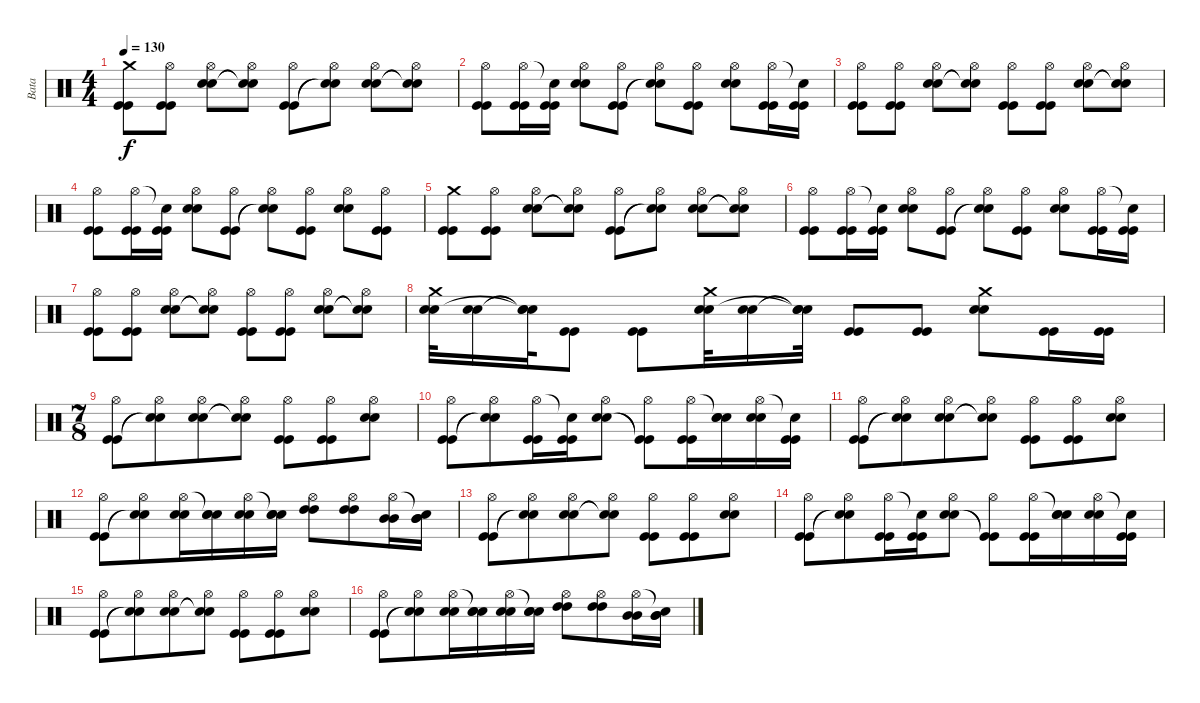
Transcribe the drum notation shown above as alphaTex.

\track ("Bata" "Bata") {instrument percussion}
\staff {score}
\articulation defaults
\ts (4 4)
\tempo 130
\clef neutral
\ks c
("Crash medium (hit)" "Kick (hit)" "Kick (hit)").8{dy f} ("Hi-Hat (open)" "Kick (hit)" "Kick (hit)").8 ("Hi-Hat (open)" "Snare (hit) 2" "Snare (hit) 2").8 ("Hi-Hat (open)" "Snare (hit)"{t} "Snare (hit)"{t}).8 ("Hi-Hat (open)" "Kick (hit)" "Kick (hit)").8 ("Hi-Hat (open)" "Snare (hit)"{t} "Snare (hit)"{t}).8 ("Hi-Hat (open)" "Snare (hit) 2" "Snare (hit) 2").8 ("Hi-Hat (open)" "Snare (hit)"{t} "Snare (hit)"{t}).8 |
("Hi-Hat (open)" "Kick (hit)" "Kick (hit)").8 ("Hi-Hat (open)" "Kick (hit)" "Kick (hit)").16 ("Snare (hit)"{t} "Kick (hit)" "Kick (hit)").16 ("Hi-Hat (open)" "Snare (hit) 2" "Snare (hit) 2").8 ("Hi-Hat (open)" "Kick (hit)" "Kick (hit)").8 ("Hi-Hat (open)" "Snare (hit)"{t} "Snare (hit)"{t}).8 ("Hi-Hat (open)" "Kick (hit)" "Kick (hit)").8 ("Hi-Hat (open)" "Snare (hit) 2" "Snare (hit) 2").8 ("Hi-Hat (open)" "Kick (hit)" "Kick (hit)").16 ("Snare (hit)"{t} "Kick (hit)" "Kick (hit)").16 |
("Hi-Hat (open)" "Kick (hit)" "Kick (hit)").8 ("Hi-Hat (open)" "Kick (hit)" "Kick (hit)").8 ("Hi-Hat (open)" "Snare (hit) 2" "Snare (hit) 2").8 ("Hi-Hat (open)" "Snare (hit)"{t} "Snare (hit)"{t}).8 ("Hi-Hat (open)" "Kick (hit)" "Kick (hit)").8 ("Hi-Hat (open)" "Kick (hit)" "Kick (hit)").8 ("Hi-Hat (open)" "Snare (hit) 2" "Snare (hit) 2").8 ("Hi-Hat (open)" "Snare (hit)"{t} "Snare (hit)"{t}).8 |
("Hi-Hat (open)" "Kick (hit)" "Kick (hit)").8 ("Hi-Hat (open)" "Kick (hit)" "Kick (hit)").16 ("Snare (hit)"{t} "Kick (hit)" "Kick (hit)").16 ("Hi-Hat (open)" "Snare (hit) 2" "Snare (hit) 2").8 ("Hi-Hat (open)" "Kick (hit)" "Kick (hit)").8 ("Hi-Hat (open)" "Snare (hit)"{t} "Snare (hit)"{t}).8 ("Hi-Hat (open)" "Kick (hit)" "Kick (hit)").8 ("Hi-Hat (open)" "Snare (hit) 2" "Snare (hit) 2").8 ("Hi-Hat (open)" "Kick (hit)" "Kick (hit)").8 |
("Crash medium (hit)" "Kick (hit)" "Kick (hit)").8 ("Hi-Hat (open)" "Kick (hit)" "Kick (hit)").8 ("Hi-Hat (open)" "Snare (hit) 2" "Snare (hit) 2").8 ("Hi-Hat (open)" "Snare (hit)"{t} "Snare (hit)"{t}).8 ("Hi-Hat (open)" "Kick (hit)" "Kick (hit)").8 ("Hi-Hat (open)" "Snare (hit)"{t} "Snare (hit)"{t}).8 ("Hi-Hat (open)" "Snare (hit) 2" "Snare (hit) 2").8 ("Hi-Hat (open)" "Snare (hit)"{t} "Snare (hit)"{t}).8 |
("Hi-Hat (open)" "Kick (hit)" "Kick (hit)").8 ("Hi-Hat (open)" "Kick (hit)" "Kick (hit)").16 ("Snare (hit)"{t} "Kick (hit)" "Kick (hit)").16 ("Hi-Hat (open)" "Snare (hit) 2" "Snare (hit) 2").8 ("Hi-Hat (open)" "Kick (hit)" "Kick (hit)").8 ("Hi-Hat (open)" "Snare (hit)"{t} "Snare (hit)"{t}).8 ("Hi-Hat (open)" "Kick (hit)" "Kick (hit)").8 ("Hi-Hat (open)" "Snare (hit) 2" "Snare (hit) 2").8 ("Hi-Hat (open)" "Kick (hit)" "Kick (hit)").16 ("Snare (hit)"{t} "Kick (hit)" "Kick (hit)").16 |
("Hi-Hat (open)" "Kick (hit)" "Kick (hit)").8 ("Hi-Hat (open)" "Kick (hit)" "Kick (hit)").8 ("Hi-Hat (open)" "Snare (hit) 2" "Snare (hit) 2").8 ("Hi-Hat (open)" "Snare (hit)"{t} "Snare (hit)"{t}).8 ("Hi-Hat (open)" "Kick (hit)" "Kick (hit)").8 ("Hi-Hat (open)" "Kick (hit)" "Kick (hit)").8 ("Hi-Hat (open)" "Snare (hit) 2" "Snare (hit) 2").8 ("Hi-Hat (open)" "Snare (hit)"{t} "Snare (hit)"{t}).8 |
("Crash medium (hit)" "Snare (hit) 2" "Snare (hit) 2").32 ("Snare (hit) 2" "Snare (hit) 2").16 ("Snare (hit)"{t} "Snare (hit)"{t} "Snare (hit)"{t}).32 ("Kick (hit)" "Kick (hit)").8 ("Kick (hit)" "Kick (hit)").8 ("Crash medium (hit)" "Snare (hit) 2" "Snare (hit) 2").32 ("Snare (hit) 2" "Snare (hit) 2").16 ("Snare (hit)"{t} "Snare (hit)"{t} "Snare (hit)"{t}).32 ("Kick (hit)" "Kick (hit)").8 ("Kick (hit)" "Kick (hit)").8 ("Crash medium (hit)" "Snare (hit) 2" "Snare (hit) 2").8 ("Kick (hit)" "Kick (hit)").16 ("Kick (hit)" "Kick (hit)").16 |
\ts (7 8)
("Hi-Hat (open)" "Kick (hit)" "Kick (hit)").8 ("Hi-Hat (open)" "Snare (hit)"{t} "Snare (hit)"{t}).8 ("Hi-Hat (open)" "Snare (hit) 2" "Snare (hit) 2").8 ("Hi-Hat (open)" "Snare (hit)"{t} "Snare (hit)"{t}).8 ("Hi-Hat (open)" "Kick (hit)" "Kick (hit)").8 ("Hi-Hat (open)" "Kick (hit)" "Kick (hit)").8 ("Hi-Hat (open)" "Snare (hit) 2" "Snare (hit) 2").8 |
("Hi-Hat (open)" "Kick (hit)" "Kick (hit)").8 ("Hi-Hat (open)" "Snare (hit)"{t} "Snare (hit)"{t}).8 ("Hi-Hat (open)" "Kick (hit)" "Kick (hit)").16 ("Snare (hit)"{t} "Kick (hit)" "Kick (hit)").16 ("Hi-Hat (open)" "Snare (hit) 2" "Snare (hit) 2").8 ("Hi-Hat (open)" "Kick (hit)"{t} "Kick (hit)"{t}).8 ("Hi-Hat (open)" "Kick (hit)" "Kick (hit)").16 ("Snare (hit)"{t} "Snare (hit) 2" "Snare (hit) 2").16 ("Hi-Hat (open)" "Snare (hit) 2" "Snare (hit) 2").16 ("Snare (hit)"{t} "Kick (hit)" "Kick (hit)").16 |
("Hi-Hat (open)" "Kick (hit)" "Kick (hit)").8 ("Hi-Hat (open)" "Snare (hit)"{t} "Snare (hit)"{t}).8 ("Hi-Hat (open)" "Snare (hit) 2" "Snare (hit) 2").8 ("Hi-Hat (open)" "Snare (hit)"{t} "Snare (hit)"{t}).8 ("Hi-Hat (open)" "Kick (hit)" "Kick (hit)").8 ("Hi-Hat (open)" "Kick (hit)" "Kick (hit)").8 ("Hi-Hat (open)" "Snare (hit) 2" "Snare (hit) 2").8 |
("Hi-Hat (open)" "Kick (hit)" "Kick (hit)").8 ("Hi-Hat (open)" "Snare (hit)"{t} "Snare (hit)"{t}).8 ("Hi-Hat (open)" "Snare (hit) 2" "Snare (hit) 2").16 ("Snare (hit)"{t} "Snare (hit) 2" "Snare (hit) 2").16 ("Hi-Hat (open)" "Snare (hit) 2" "Snare (hit) 2").16 ("Snare (hit)"{t} "Snare (hit) 2" "Snare (hit) 2").16 ("Hi-Hat (open)" "High Tom (hit)" "High Tom (hit)").8 ("Hi-Hat (open)" "High Tom (hit)" "High Tom (hit)").8 ("Hi-Hat (open)" "Mid Tom (hit)" "Mid Tom (hit)").16 ("Snare (hit)"{t} "Mid Tom (hit)" "Mid Tom (hit)").16 |
("Hi-Hat (open)" "Kick (hit)" "Kick (hit)").8 ("Hi-Hat (open)" "Snare (hit)"{t} "Snare (hit)"{t}).8 ("Hi-Hat (open)" "Snare (hit) 2" "Snare (hit) 2").8 ("Hi-Hat (open)" "Snare (hit)"{t} "Snare (hit)"{t}).8 ("Hi-Hat (open)" "Kick (hit)" "Kick (hit)").8 ("Hi-Hat (open)" "Kick (hit)" "Kick (hit)").8 ("Hi-Hat (open)" "Snare (hit) 2" "Snare (hit) 2").8 |
("Hi-Hat (open)" "Kick (hit)" "Kick (hit)").8 ("Hi-Hat (open)" "Snare (hit)"{t} "Snare (hit)"{t}).8 ("Hi-Hat (open)" "Kick (hit)" "Kick (hit)").16 ("Snare (hit)"{t} "Kick (hit)" "Kick (hit)").16 ("Hi-Hat (open)" "Snare (hit) 2" "Snare (hit) 2").8 ("Hi-Hat (open)" "Kick (hit)"{t} "Kick (hit)"{t}).8 ("Hi-Hat (open)" "Kick (hit)" "Kick (hit)").16 ("Snare (hit)"{t} "Snare (hit) 2" "Snare (hit) 2").16 ("Hi-Hat (open)" "Snare (hit) 2" "Snare (hit) 2").16 ("Snare (hit)"{t} "Kick (hit)" "Kick (hit)").16 |
("Hi-Hat (open)" "Kick (hit)" "Kick (hit)").8 ("Hi-Hat (open)" "Snare (hit)"{t} "Snare (hit)"{t}).8 ("Hi-Hat (open)" "Snare (hit) 2" "Snare (hit) 2").8 ("Hi-Hat (open)" "Snare (hit)"{t} "Snare (hit)"{t}).8 ("Hi-Hat (open)" "Kick (hit)" "Kick (hit)").8 ("Hi-Hat (open)" "Kick (hit)" "Kick (hit)").8 ("Hi-Hat (open)" "Snare (hit) 2" "Snare (hit) 2").8 |
("Hi-Hat (open)" "Kick (hit)" "Kick (hit)").8 ("Hi-Hat (open)" "Snare (hit)"{t} "Snare (hit)"{t}).8 ("Hi-Hat (open)" "Snare (hit) 2" "Snare (hit) 2").16 ("Snare (hit)"{t} "Snare (hit) 2" "Snare (hit) 2").16 ("Hi-Hat (open)" "Snare (hit) 2" "Snare (hit) 2").16 ("Snare (hit)"{t} "Snare (hit) 2" "Snare (hit) 2").16 ("Hi-Hat (open)" "High Tom (hit)" "High Tom (hit)").8 ("Hi-Hat (open)" "High Tom (hit)" "High Tom (hit)").8 ("Hi-Hat (open)" "Mid Tom (hit)" "Mid Tom (hit)").16 ("Snare (hit)"{t} "Mid Tom (hit)" "Mid Tom (hit)").16
